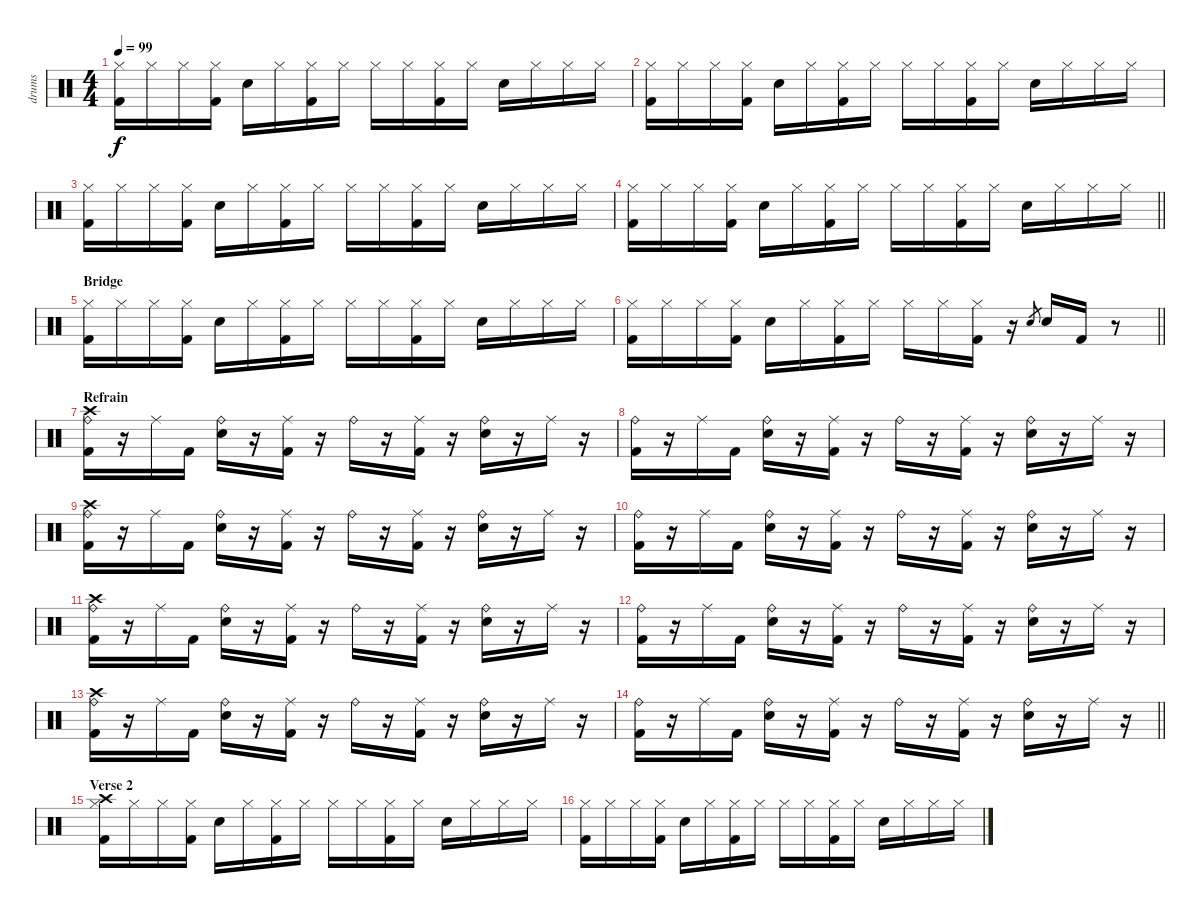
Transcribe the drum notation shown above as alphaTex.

\track ("drums" "drums") {instrument percussion}
\staff {score}
\articulation defaults
\ts (4 4)
\tempo 99
\clef neutral
\ks c
("Hi-Hat (closed)" "Kick (hit) 2").16{dy f} "Hi-Hat (closed)".16 "Hi-Hat (closed)".16 ("Hi-Hat (closed)" "Kick (hit) 2").16 "Snare (hit) 2".16 "Hi-Hat (closed)".16 ("Hi-Hat (closed)" "Kick (hit) 2").16 "Hi-Hat (closed)".16 "Hi-Hat (closed)"{nh}.16 "Hi-Hat (closed)".16 ("Hi-Hat (closed)" "Kick (hit) 2").16 "Hi-Hat (closed)".16 "Snare (hit) 2".16 "Hi-Hat (closed)".16 "Hi-Hat (closed)".16 "Hi-Hat (closed)".16 |
("Hi-Hat (closed)" "Kick (hit) 2").16 "Hi-Hat (closed)".16 "Hi-Hat (closed)".16 ("Hi-Hat (closed)" "Kick (hit) 2").16 "Snare (hit) 2".16 "Hi-Hat (closed)".16 ("Hi-Hat (closed)" "Kick (hit) 2").16 "Hi-Hat (closed)".16 "Hi-Hat (closed)"{nh}.16 "Hi-Hat (closed)".16 ("Hi-Hat (closed)" "Kick (hit) 2").16 "Hi-Hat (closed)".16 "Snare (hit) 2".16 "Hi-Hat (closed)".16 "Hi-Hat (closed)".16 "Hi-Hat (closed)".16 |
("Hi-Hat (closed)" "Kick (hit) 2").16 "Hi-Hat (closed)".16 "Hi-Hat (closed)".16 ("Hi-Hat (closed)" "Kick (hit) 2").16 "Snare (hit) 2".16 "Hi-Hat (closed)".16 ("Hi-Hat (closed)" "Kick (hit) 2").16 "Hi-Hat (closed)".16 "Hi-Hat (closed)"{nh}.16 "Hi-Hat (closed)".16 ("Hi-Hat (closed)" "Kick (hit) 2").16 "Hi-Hat (closed)".16 "Snare (hit) 2".16 "Hi-Hat (closed)".16 "Hi-Hat (closed)".16 "Hi-Hat (closed)".16 |
\barLineRight lightlight
("Hi-Hat (closed)" "Kick (hit) 2").16 "Hi-Hat (closed)".16 "Hi-Hat (closed)".16 ("Hi-Hat (closed)" "Kick (hit) 2").16 "Snare (hit) 2".16 "Hi-Hat (closed)".16 ("Hi-Hat (closed)" "Kick (hit) 2").16 "Hi-Hat (closed)".16 "Hi-Hat (closed)"{nh}.16 "Hi-Hat (closed)".16 ("Hi-Hat (closed)" "Kick (hit) 2").16 "Hi-Hat (closed)".16 "Snare (hit) 2".16 "Hi-Hat (closed)".16 "Hi-Hat (closed)".16 "Hi-Hat (closed)".16 |
\section ("" "Bridge")
("Hi-Hat (closed)" "Kick (hit) 2").16 "Hi-Hat (closed)".16 "Hi-Hat (closed)".16 ("Hi-Hat (closed)" "Kick (hit) 2").16 "Snare (hit) 2".16 "Hi-Hat (closed)".16 ("Hi-Hat (closed)" "Kick (hit) 2").16 "Hi-Hat (closed)".16 "Hi-Hat (closed)"{nh}.16 "Hi-Hat (closed)".16 ("Hi-Hat (closed)" "Kick (hit) 2").16 "Hi-Hat (closed)".16 "Snare (hit) 2".16 "Hi-Hat (closed)".16 "Hi-Hat (closed)".16 "Hi-Hat (closed)".16 |
\barLineRight lightlight
("Hi-Hat (closed)" "Kick (hit) 2").16 "Hi-Hat (closed)".16 "Hi-Hat (closed)".16 ("Hi-Hat (closed)" "Kick (hit) 2").16 "Snare (hit) 2".16 "Hi-Hat (closed)".16 ("Hi-Hat (closed)" "Kick (hit) 2").16 "Hi-Hat (closed)".16 "Hi-Hat (closed)"{nh}.16 "Hi-Hat (closed)".16 ("Hi-Hat (closed)" "Kick (hit) 2").16 r.16 "Snare (hit) 2".8{gr} "Snare (hit) 2".16 "Kick (hit) 2".16 r.8 |
\section ("" "Refrain")
("Crash high (hit)" "Ride (bell)" "Kick (hit) 2").16 r.16 "Ride (middle)".16 "Kick (hit) 2".16 ("Ride (bell)" "Snare (hit) 2").16 r.16 ("Ride (middle)" "Kick (hit) 2").16 r.16 "Ride (bell)"{nh}.16 r.16 ("Ride (middle)" "Kick (hit) 2").16 r.16 ("Ride (bell)" "Snare (hit) 2").16 r.16 "Ride (middle)".16 r.16 |
("Ride (bell)" "Kick (hit) 2").16 r.16 "Ride (middle)".16 "Kick (hit) 2".16 ("Ride (bell)" "Snare (hit) 2").16 r.16 ("Ride (middle)" "Kick (hit) 2").16 r.16 "Ride (bell)"{nh}.16 r.16 ("Ride (middle)" "Kick (hit) 2").16 r.16 ("Ride (bell)" "Snare (hit) 2").16 r.16 "Ride (middle)".16 r.16 |
("Crash high (hit)" "Ride (bell)" "Kick (hit) 2").16 r.16 "Ride (middle)".16 "Kick (hit) 2".16 ("Ride (bell)" "Snare (hit) 2").16 r.16 ("Ride (middle)" "Kick (hit) 2").16 r.16 "Ride (bell)"{nh}.16 r.16 ("Ride (middle)" "Kick (hit) 2").16 r.16 ("Ride (bell)" "Snare (hit) 2").16 r.16 "Ride (middle)".16 r.16 |
("Ride (bell)" "Kick (hit) 2").16 r.16 "Ride (middle)".16 "Kick (hit) 2".16 ("Ride (bell)" "Snare (hit) 2").16 r.16 ("Ride (middle)" "Kick (hit) 2").16 r.16 "Ride (bell)"{nh}.16 r.16 ("Ride (middle)" "Kick (hit) 2").16 r.16 ("Ride (bell)" "Snare (hit) 2").16 r.16 "Ride (middle)".16 r.16 |
("Crash high (hit)" "Ride (bell)" "Kick (hit) 2").16 r.16 "Ride (middle)".16 "Kick (hit) 2".16 ("Ride (bell)" "Snare (hit) 2").16 r.16 ("Ride (middle)" "Kick (hit) 2").16 r.16 "Ride (bell)"{nh}.16 r.16 ("Ride (middle)" "Kick (hit) 2").16 r.16 ("Ride (bell)" "Snare (hit) 2").16 r.16 "Ride (middle)".16 r.16 |
("Ride (bell)" "Kick (hit) 2").16 r.16 "Ride (middle)".16 "Kick (hit) 2".16 ("Ride (bell)" "Snare (hit) 2").16 r.16 ("Ride (middle)" "Kick (hit) 2").16 r.16 "Ride (bell)"{nh}.16 r.16 ("Ride (middle)" "Kick (hit) 2").16 r.16 ("Ride (bell)" "Snare (hit) 2").16 r.16 "Ride (middle)".16 r.16 |
("Crash high (hit)" "Ride (bell)" "Kick (hit) 2").16 r.16 "Ride (middle)".16 "Kick (hit) 2".16 ("Ride (bell)" "Snare (hit) 2").16 r.16 ("Ride (middle)" "Kick (hit) 2").16 r.16 "Ride (bell)"{nh}.16 r.16 ("Ride (middle)" "Kick (hit) 2").16 r.16 ("Ride (bell)" "Snare (hit) 2").16 r.16 "Ride (middle)".16 r.16 |
\barLineRight lightlight
("Ride (bell)" "Kick (hit) 2").16 r.16 "Ride (middle)".16 "Kick (hit) 2".16 ("Ride (bell)" "Snare (hit) 2").16 r.16 ("Ride (middle)" "Kick (hit) 2").16 r.16 "Ride (bell)"{nh}.16 r.16 ("Ride (middle)" "Kick (hit) 2").16 r.16 ("Ride (bell)" "Snare (hit) 2").16 r.16 "Ride (middle)".16 r.16 |
\section ("" "Verse 2")
("Crash high (hit)" "Hi-Hat (closed)" "Kick (hit) 2").16 "Hi-Hat (closed)".16 "Hi-Hat (closed)".16 ("Hi-Hat (closed)" "Kick (hit) 2").16 "Snare (hit) 2".16 "Hi-Hat (closed)".16 ("Hi-Hat (closed)" "Kick (hit) 2").16 "Hi-Hat (closed)".16 "Hi-Hat (closed)"{nh}.16 "Hi-Hat (closed)".16 ("Hi-Hat (closed)" "Kick (hit) 2").16 "Hi-Hat (closed)".16 "Snare (hit) 2".16 "Hi-Hat (closed)".16 "Hi-Hat (closed)".16 "Hi-Hat (closed)".16 |
("Hi-Hat (closed)" "Kick (hit) 2").16 "Hi-Hat (closed)".16 "Hi-Hat (closed)".16 ("Hi-Hat (closed)" "Kick (hit) 2").16 "Snare (hit) 2".16 "Hi-Hat (closed)".16 ("Hi-Hat (closed)" "Kick (hit) 2").16 "Hi-Hat (closed)".16 "Hi-Hat (closed)"{nh}.16 "Hi-Hat (closed)".16 ("Hi-Hat (closed)" "Kick (hit) 2").16 "Hi-Hat (closed)".16 "Snare (hit) 2".16 "Hi-Hat (closed)".16 "Hi-Hat (closed)".16 "Hi-Hat (closed)".16
